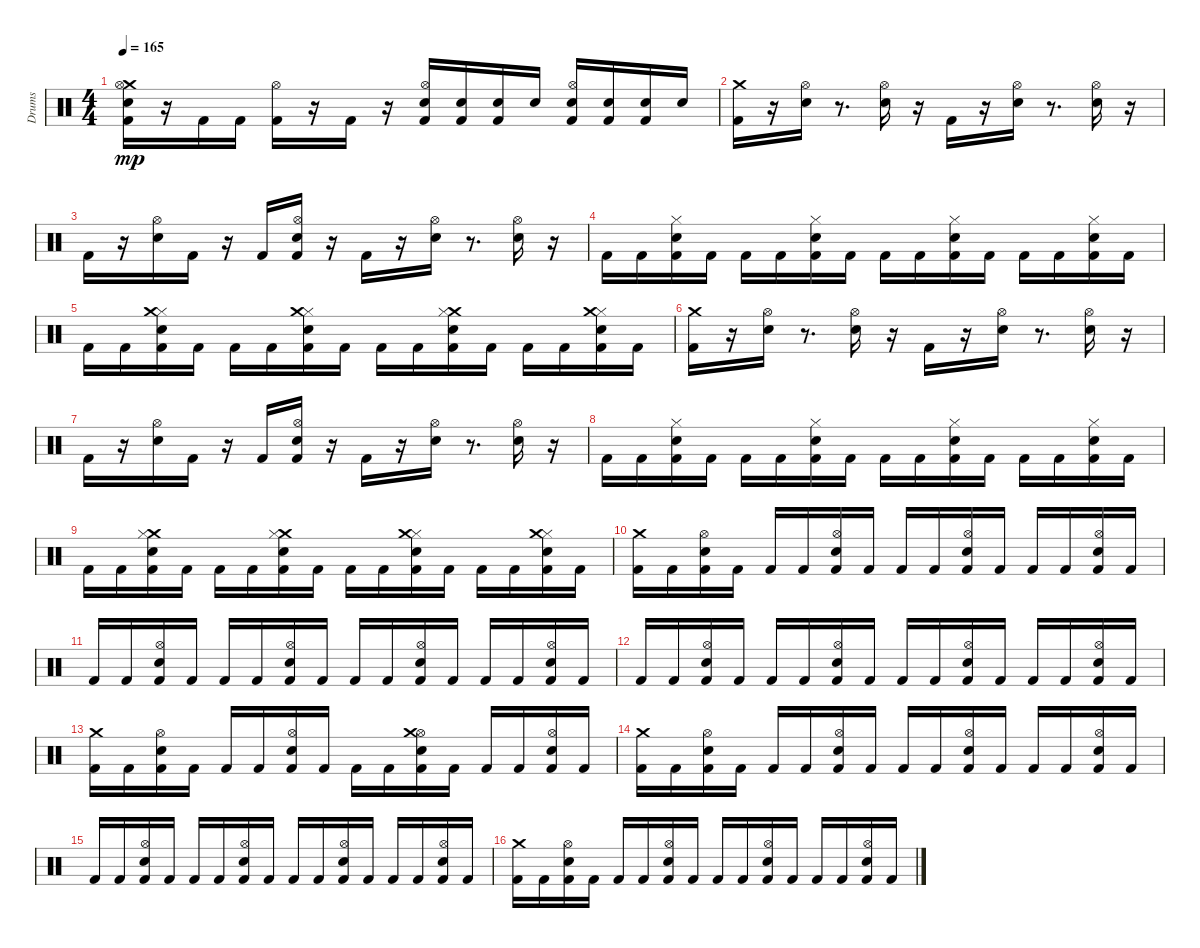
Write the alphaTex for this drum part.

\track ("Drums" "Drums") {instrument percussion}
\staff {score}
\articulation defaults
\ts (4 4)
\tempo 165
\clef neutral
\ks c
("Crash medium (hit)" "Electric Snare (hit)" "Hi-Hat (open)" "Kick (hit) 2").16{dy mp} r.16 "Kick (hit) 2".16 "Kick (hit) 2".16 ("Hi-Hat (open)" "Kick (hit) 2").16 r.16 "Kick (hit) 2".16 r.16 ("Hi-Hat (open)" "Electric Snare (hit)" "Kick (hit) 2").16 ("Electric Snare (hit)" "Kick (hit) 2").16 ("Electric Snare (hit)" "Kick (hit) 2").16 "Electric Snare (hit)".16 ("Hi-Hat (open)" "Electric Snare (hit)" "Kick (hit) 2").16 ("Electric Snare (hit)" "Kick (hit) 2").16 ("Electric Snare (hit)" "Kick (hit) 2").16 "Electric Snare (hit)".16 |
("Crash medium (hit)" "Kick (hit) 2").16 r.16 ("Electric Snare (hit)" "Hi-Hat (open)").16 r.8{d} ("Electric Snare (hit)" "Hi-Hat (open)").16 r.16 "Kick (hit) 2".16 r.16 ("Hi-Hat (open)" "Electric Snare (hit)").16 r.8{d} ("Electric Snare (hit)" "Hi-Hat (open)").16 r.16 |
"Kick (hit) 2".16 r.16 ("Electric Snare (hit)" "Hi-Hat (open)").16 "Kick (hit) 2".16 r.16 "Kick (hit) 2".16 ("Hi-Hat (open)" "Kick (hit) 2" "Electric Snare (hit)").16 r.16 "Kick (hit) 2".16 r.16 ("Hi-Hat (open)" "Electric Snare (hit)").16 r.8{d} ("Electric Snare (hit)" "Hi-Hat (open)").16 r.16 |
"Kick (hit) 2".16 "Kick (hit) 2".16 ("Electric Snare (hit)" "Kick (hit) 2" "Hi-Hat (closed)").16 "Kick (hit) 2".16 "Kick (hit) 2".16 "Kick (hit) 2".16 ("Hi-Hat (closed)" "Electric Snare (hit)" "Kick (hit) 2").16 "Kick (hit) 2".16 "Kick (hit) 2".16 "Kick (hit) 2".16 ("Kick (hit) 2" "Electric Snare (hit)" "Hi-Hat (closed)").16 "Kick (hit) 2".16 "Kick (hit) 2".16 "Kick (hit) 2".16 ("Kick (hit) 2" "Hi-Hat (closed)" "Electric Snare (hit)").16 "Kick (hit) 2".16 |
"Kick (hit) 2".16 "Kick (hit) 2".16 ("Hi-Hat (closed)" "Kick (hit) 2" "Electric Snare (hit)" "Crash medium (hit)").16 "Kick (hit) 2".16 "Kick (hit) 2".16 "Kick (hit) 2".16 ("Hi-Hat (closed)" "Electric Snare (hit)" "Crash medium (hit)" "Kick (hit) 2").16 "Kick (hit) 2".16 "Kick (hit) 2".16 "Kick (hit) 2".16 ("Crash medium (hit)" "Kick (hit) 2" "Electric Snare (hit)" "Hi-Hat (closed)").16 "Kick (hit) 2".16 "Kick (hit) 2".16 "Kick (hit) 2".16 ("Hi-Hat (closed)" "Kick (hit) 2" "Electric Snare (hit)" "Crash medium (hit)").16 "Kick (hit) 2".16 |
("Kick (hit) 2" "Crash medium (hit)").16 r.16 ("Hi-Hat (open)" "Electric Snare (hit)").16 r.8{d} ("Hi-Hat (open)" "Electric Snare (hit)").16 r.16 "Kick (hit) 2".16 r.16 ("Hi-Hat (open)" "Electric Snare (hit)").16 r.8{d} ("Hi-Hat (open)" "Electric Snare (hit)").16 r.16 |
"Kick (hit) 2".16 r.16 ("Hi-Hat (open)" "Electric Snare (hit)").16 "Kick (hit) 2".16 r.16 "Kick (hit) 2".16 ("Electric Snare (hit)" "Kick (hit) 2" "Hi-Hat (open)").16 r.16 "Kick (hit) 2".16 r.16 ("Electric Snare (hit)" "Hi-Hat (open)").16 r.8{d} ("Electric Snare (hit)" "Hi-Hat (open)").16 r.16 |
"Kick (hit) 2".16 "Kick (hit) 2".16 ("Kick (hit) 2" "Electric Snare (hit)" "Hi-Hat (closed)").16 "Kick (hit) 2".16 "Kick (hit) 2".16 "Kick (hit) 2".16 ("Kick (hit) 2" "Hi-Hat (closed)" "Electric Snare (hit)").16 "Kick (hit) 2".16 "Kick (hit) 2".16 "Kick (hit) 2".16 ("Hi-Hat (closed)" "Electric Snare (hit)" "Kick (hit) 2").16 "Kick (hit) 2".16 "Kick (hit) 2".16 "Kick (hit) 2".16 ("Kick (hit) 2" "Electric Snare (hit)" "Hi-Hat (closed)").16 "Kick (hit) 2".16 |
"Kick (hit) 2".16 "Kick (hit) 2".16 ("Electric Snare (hit)" "Crash medium (hit)" "Kick (hit) 2" "Hi-Hat (closed)").16 "Kick (hit) 2".16 "Kick (hit) 2".16 "Kick (hit) 2".16 ("Crash medium (hit)" "Electric Snare (hit)" "Hi-Hat (closed)" "Kick (hit) 2").16 "Kick (hit) 2".16 "Kick (hit) 2".16 "Kick (hit) 2".16 ("Hi-Hat (closed)" "Crash medium (hit)" "Electric Snare (hit)" "Kick (hit) 2").16 "Kick (hit) 2".16 "Kick (hit) 2".16 "Kick (hit) 2".16 ("Hi-Hat (closed)" "Electric Snare (hit)" "Crash medium (hit)" "Kick (hit) 2").16 "Kick (hit) 2".16 |
("Kick (hit) 2" "Crash medium (hit)").16 "Kick (hit) 2".16 ("Electric Snare (hit)" "Hi-Hat (open)" "Kick (hit) 2").16 "Kick (hit) 2".16 "Kick (hit) 2".16 "Kick (hit) 2".16 ("Hi-Hat (open)" "Kick (hit) 2" "Electric Snare (hit)").16 "Kick (hit) 2".16 "Kick (hit) 2".16 "Kick (hit) 2".16 ("Kick (hit) 2" "Electric Snare (hit)" "Hi-Hat (open)").16 "Kick (hit) 2".16 "Kick (hit) 2".16 "Kick (hit) 2".16 ("Electric Snare (hit)" "Hi-Hat (open)" "Kick (hit) 2").16 "Kick (hit) 2".16 |
"Kick (hit) 2".16 "Kick (hit) 2".16 ("Electric Snare (hit)" "Hi-Hat (open)" "Kick (hit) 2").16 "Kick (hit) 2".16 "Kick (hit) 2".16 "Kick (hit) 2".16 ("Kick (hit) 2" "Hi-Hat (open)" "Electric Snare (hit)").16 "Kick (hit) 2".16 "Kick (hit) 2".16 "Kick (hit) 2".16 ("Electric Snare (hit)" "Kick (hit) 2" "Hi-Hat (open)").16 "Kick (hit) 2".16 "Kick (hit) 2".16 "Kick (hit) 2".16 ("Electric Snare (hit)" "Hi-Hat (open)" "Kick (hit) 2").16 "Kick (hit) 2".16 |
"Kick (hit) 2".16 "Kick (hit) 2".16 ("Electric Snare (hit)" "Hi-Hat (open)" "Kick (hit) 2").16 "Kick (hit) 2".16 "Kick (hit) 2".16 "Kick (hit) 2".16 ("Hi-Hat (open)" "Electric Snare (hit)" "Kick (hit) 2").16 "Kick (hit) 2".16 "Kick (hit) 2".16 "Kick (hit) 2".16 ("Kick (hit) 2" "Electric Snare (hit)" "Hi-Hat (open)").16 "Kick (hit) 2".16 "Kick (hit) 2".16 "Kick (hit) 2".16 ("Kick (hit) 2" "Hi-Hat (open)" "Electric Snare (hit)").16 "Kick (hit) 2".16 |
("Kick (hit) 2" "Crash medium (hit)").16 "Kick (hit) 2".16 ("Electric Snare (hit)" "Hi-Hat (open)" "Kick (hit) 2").16 "Kick (hit) 2".16 "Kick (hit) 2".16 "Kick (hit) 2".16 ("Hi-Hat (open)" "Kick (hit) 2" "Electric Snare (hit)").16 "Kick (hit) 2".16 "Kick (hit) 2".16 "Kick (hit) 2".16 ("Kick (hit) 2" "Electric Snare (hit)" "Hi-Hat (open)" "Crash medium (hit)").16 "Kick (hit) 2".16 "Kick (hit) 2".16 "Kick (hit) 2".16 ("Kick (hit) 2" "Hi-Hat (open)" "Electric Snare (hit)").16 "Kick (hit) 2".16 |
("Kick (hit) 2" "Crash medium (hit)").16 "Kick (hit) 2".16 ("Kick (hit) 2" "Electric Snare (hit)" "Hi-Hat (open)").16 "Kick (hit) 2".16 "Kick (hit) 2".16 "Kick (hit) 2".16 ("Hi-Hat (open)" "Kick (hit) 2" "Electric Snare (hit)").16 "Kick (hit) 2".16 "Kick (hit) 2".16 "Kick (hit) 2".16 ("Electric Snare (hit)" "Hi-Hat (open)" "Kick (hit) 2").16 "Kick (hit) 2".16 "Kick (hit) 2".16 "Kick (hit) 2".16 ("Hi-Hat (open)" "Electric Snare (hit)" "Kick (hit) 2").16 "Kick (hit) 2".16 |
"Kick (hit) 2".16 "Kick (hit) 2".16 ("Electric Snare (hit)" "Hi-Hat (open)" "Kick (hit) 2").16 "Kick (hit) 2".16 "Kick (hit) 2".16 "Kick (hit) 2".16 ("Kick (hit) 2" "Hi-Hat (open)" "Electric Snare (hit)").16 "Kick (hit) 2".16 "Kick (hit) 2".16 "Kick (hit) 2".16 ("Kick (hit) 2" "Hi-Hat (open)" "Electric Snare (hit)").16 "Kick (hit) 2".16 "Kick (hit) 2".16 "Kick (hit) 2".16 ("Hi-Hat (open)" "Electric Snare (hit)" "Kick (hit) 2").16 "Kick (hit) 2".16 |
("Crash medium (hit)" "Kick (hit) 2").16 "Kick (hit) 2".16 ("Kick (hit) 2" "Hi-Hat (open)" "Electric Snare (hit)").16 "Kick (hit) 2".16 "Kick (hit) 2".16 "Kick (hit) 2".16 ("Hi-Hat (open)" "Electric Snare (hit)" "Kick (hit) 2").16 "Kick (hit) 2".16 "Kick (hit) 2".16 "Kick (hit) 2".16 ("Kick (hit) 2" "Electric Snare (hit)" "Hi-Hat (open)").16 "Kick (hit) 2".16 "Kick (hit) 2".16 "Kick (hit) 2".16 ("Kick (hit) 2" "Electric Snare (hit)" "Hi-Hat (open)").16 "Kick (hit) 2".16
